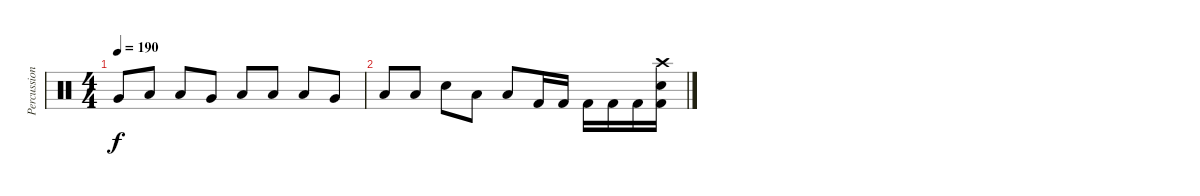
\track ("Percussion" "Percussion") {instrument percussion}
\staff {score}
\articulation defaults
\ts (4 4)
\tempo 190
\clef neutral
\ks c "Very Low Tom (hit)".8{dy f} "Low Tom (hit)".8 "Low Floor Tom (hit)".8 "Very Low Tom (hit)".8 "Low Tom (hit)".8 "Low Floor Tom (hit)".8 "Low Tom (hit)".8 "Very Low Tom (hit)".8
|
"Low Floor Tom (hit)".8 "Low Floor Tom (hit)".8 "Electric Snare (hit)".8 "Low Floor Tom (hit)".8 "Low Floor Tom (hit)".8 "Kick (hit) 2".16 "Kick (hit) 2".16 "Kick (hit) 2".16 "Kick (hit) 2".16 "Kick (hit) 2".16 ("Crash high (hit)" "Electric Snare (hit)" "Kick (hit) 2").16
